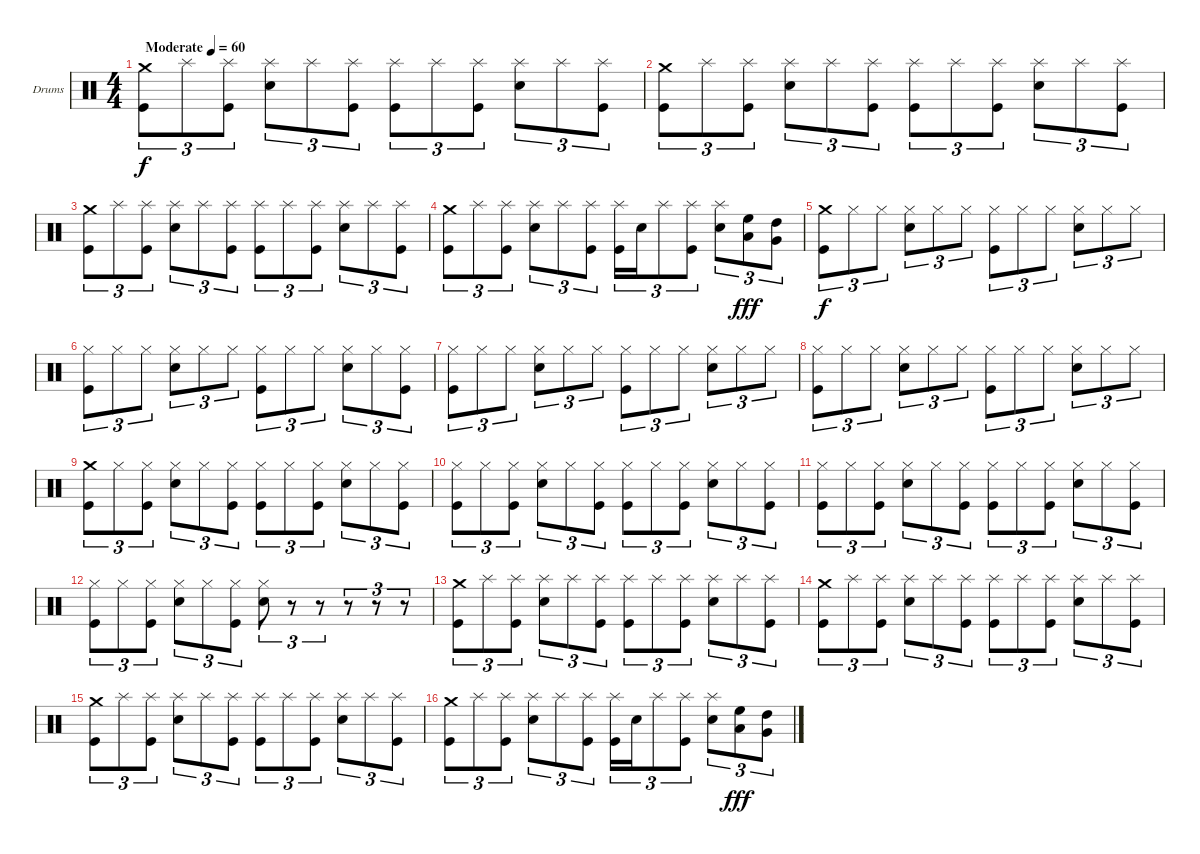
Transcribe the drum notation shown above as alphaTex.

\bracketExtendMode groupsimilarinstruments
\firstSystemTrackNameOrientation horizontal
\otherSystemsTrackNameOrientation horizontal
\track ("Drumkit" "Drums") {instrument percussion}
\staff {score}
\articulation defaults
\ts (4 4)
\beaming (8 2 2 2 2)
\tempo (60 "Moderate")
\clef neutral
\ks c
("Crash medium (hit)" "Kick (hit)").8{tu (3 2) dy f} "Splash (hit)".8{tu (3 2)} ("Splash (hit)" "Kick (hit)").8{tu (3 2)} ("Splash (hit)" "Snare (hit) 2").8{tu (3 2)} "Splash (hit)".8{tu (3 2)} ("Splash (hit)" "Kick (hit)").8{tu (3 2)} ("Splash (hit)" "Kick (hit)").8{tu (3 2)} "Splash (hit)".8{tu (3 2)} ("Splash (hit)" "Kick (hit)").8{tu (3 2)} ("Splash (hit)" "Snare (hit) 2").8{tu (3 2)} "Splash (hit)".8{tu (3 2)} ("Splash (hit)" "Kick (hit)").8{tu (3 2)} |
("Crash medium (hit)" "Kick (hit)").8{tu (3 2)} "Splash (hit)".8{tu (3 2)} ("Splash (hit)" "Kick (hit)").8{tu (3 2)} ("Splash (hit)" "Snare (hit) 2").8{tu (3 2)} "Splash (hit)".8{tu (3 2)} ("Splash (hit)" "Kick (hit)").8{tu (3 2)} ("Splash (hit)" "Kick (hit)").8{tu (3 2)} "Splash (hit)".8{tu (3 2)} ("Splash (hit)" "Kick (hit)").8{tu (3 2)} ("Splash (hit)" "Snare (hit) 2").8{tu (3 2)} "Splash (hit)".8{tu (3 2)} ("Splash (hit)" "Kick (hit)").8{tu (3 2)} |
("Crash medium (hit)" "Kick (hit)").8{tu (3 2)} "Splash (hit)".8{tu (3 2)} ("Splash (hit)" "Kick (hit)").8{tu (3 2)} ("Splash (hit)" "Snare (hit) 2").8{tu (3 2)} "Splash (hit)".8{tu (3 2)} ("Splash (hit)" "Kick (hit)").8{tu (3 2)} ("Splash (hit)" "Kick (hit)").8{tu (3 2)} "Splash (hit)".8{tu (3 2)} ("Splash (hit)" "Kick (hit)").8{tu (3 2)} ("Splash (hit)" "Snare (hit) 2").8{tu (3 2)} "Splash (hit)".8{tu (3 2)} ("Splash (hit)" "Kick (hit)").8{tu (3 2)} |
("Crash medium (hit)" "Kick (hit)").8{tu (3 2)} "Splash (hit)".8{tu (3 2)} ("Splash (hit)" "Kick (hit)").8{tu (3 2)} ("Splash (hit)" "Snare (hit) 2").8{tu (3 2)} "Splash (hit)".8{tu (3 2)} ("Splash (hit)" "Kick (hit)").8{tu (3 2)} ("Splash (hit)" "Kick (hit)").16{tu (3 2)} "Snare (hit) 2".16{tu (3 2)} "Splash (hit)".8{tu (3 2)} ("Splash (hit)" "Kick (hit)").8{tu (3 2)} ("Splash (hit)" "Snare (hit) 2").8{tu (3 2)} ("High Floor Tom (hit)" "Low Tom (hit)").8{tu (3 2) dy fff} ("High Tom (hit)" "Very Low Tom (hit)").8{tu (3 2)} |
("Crash medium (hit)" "Kick (hit)").8{tu (3 2) dy f} "Hi-Hat (closed)".8{tu (3 2)} "Hi-Hat (closed)".8{tu (3 2)} ("Hi-Hat (closed)" "Snare (hit) 2").8{tu (3 2)} "Hi-Hat (closed)".8{tu (3 2)} "Hi-Hat (closed)".8{tu (3 2)} ("Hi-Hat (closed)" "Kick (hit)").8{tu (3 2)} "Hi-Hat (closed)".8{tu (3 2)} "Hi-Hat (closed)".8{tu (3 2)} ("Hi-Hat (closed)" "Snare (hit) 2").8{tu (3 2)} "Hi-Hat (closed)".8{tu (3 2)} "Hi-Hat (closed)".8{tu (3 2)} |
("Hi-Hat (closed)" "Kick (hit)").8{tu (3 2)} "Hi-Hat (closed)".8{tu (3 2)} "Hi-Hat (closed)".8{tu (3 2)} ("Hi-Hat (closed)" "Snare (hit) 2").8{tu (3 2)} "Hi-Hat (closed)".8{tu (3 2)} "Hi-Hat (closed)".8{tu (3 2)} ("Hi-Hat (closed)" "Kick (hit)").8{tu (3 2)} "Hi-Hat (closed)".8{tu (3 2)} "Hi-Hat (closed)".8{tu (3 2)} ("Hi-Hat (closed)" "Snare (hit) 2").8{tu (3 2)} "Hi-Hat (closed)".8{tu (3 2)} ("Hi-Hat (closed)" "Kick (hit)").8{tu (3 2)} |
("Hi-Hat (closed)" "Kick (hit)").8{tu (3 2)} "Hi-Hat (closed)".8{tu (3 2)} "Hi-Hat (closed)".8{tu (3 2)} ("Hi-Hat (closed)" "Snare (hit) 2").8{tu (3 2)} "Hi-Hat (closed)".8{tu (3 2)} "Hi-Hat (closed)".8{tu (3 2)} ("Hi-Hat (closed)" "Kick (hit)").8{tu (3 2)} "Hi-Hat (closed)".8{tu (3 2)} "Hi-Hat (closed)".8{tu (3 2)} ("Hi-Hat (closed)" "Snare (hit) 2").8{tu (3 2)} "Hi-Hat (closed)".8{tu (3 2)} "Hi-Hat (closed)".8{tu (3 2)} |
("Hi-Hat (closed)" "Kick (hit)").8{tu (3 2)} "Hi-Hat (closed)".8{tu (3 2)} "Hi-Hat (closed)".8{tu (3 2)} ("Hi-Hat (closed)" "Snare (hit) 2").8{tu (3 2)} "Hi-Hat (closed)".8{tu (3 2)} "Hi-Hat (closed)".8{tu (3 2)} ("Hi-Hat (closed)" "Kick (hit)").8{tu (3 2)} "Hi-Hat (closed)".8{tu (3 2)} "Hi-Hat (closed)".8{tu (3 2)} ("Hi-Hat (closed)" "Snare (hit) 2").8{tu (3 2)} "Hi-Hat (closed)".8{tu (3 2)} "Hi-Hat (closed)".8{tu (3 2)} |
("Crash medium (hit)" "Kick (hit)").8{tu (3 2)} "Hi-Hat (closed)".8{tu (3 2)} ("Hi-Hat (closed)" "Kick (hit)").8{tu (3 2)} ("Hi-Hat (closed)" "Snare (hit) 2").8{tu (3 2)} "Hi-Hat (closed)".8{tu (3 2)} ("Hi-Hat (closed)" "Kick (hit)").8{tu (3 2)} ("Hi-Hat (closed)" "Kick (hit)").8{tu (3 2)} "Hi-Hat (closed)".8{tu (3 2)} ("Hi-Hat (closed)" "Kick (hit)").8{tu (3 2)} ("Hi-Hat (closed)" "Snare (hit) 2").8{tu (3 2)} "Hi-Hat (closed)".8{tu (3 2)} ("Hi-Hat (closed)" "Kick (hit)").8{tu (3 2)} |
("Hi-Hat (closed)" "Kick (hit)").8{tu (3 2)} "Hi-Hat (closed)".8{tu (3 2)} ("Hi-Hat (closed)" "Kick (hit)").8{tu (3 2)} ("Hi-Hat (closed)" "Snare (hit) 2").8{tu (3 2)} "Hi-Hat (closed)".8{tu (3 2)} ("Hi-Hat (closed)" "Kick (hit)").8{tu (3 2)} ("Hi-Hat (closed)" "Kick (hit)").8{tu (3 2)} "Hi-Hat (closed)".8{tu (3 2)} ("Hi-Hat (closed)" "Kick (hit)").8{tu (3 2)} ("Hi-Hat (closed)" "Snare (hit) 2").8{tu (3 2)} "Hi-Hat (closed)".8{tu (3 2)} ("Hi-Hat (closed)" "Kick (hit)").8{tu (3 2)} |
("Hi-Hat (closed)" "Kick (hit)").8{tu (3 2)} "Hi-Hat (closed)".8{tu (3 2)} ("Hi-Hat (closed)" "Kick (hit)").8{tu (3 2)} ("Hi-Hat (closed)" "Snare (hit) 2").8{tu (3 2)} "Hi-Hat (closed)".8{tu (3 2)} ("Hi-Hat (closed)" "Kick (hit)").8{tu (3 2)} ("Hi-Hat (closed)" "Kick (hit)").8{tu (3 2)} "Hi-Hat (closed)".8{tu (3 2)} ("Hi-Hat (closed)" "Kick (hit)").8{tu (3 2)} ("Hi-Hat (closed)" "Snare (hit) 2").8{tu (3 2)} "Hi-Hat (closed)".8{tu (3 2)} ("Hi-Hat (closed)" "Kick (hit)").8{tu (3 2)} |
("Hi-Hat (closed)" "Kick (hit)").8{tu (3 2)} "Hi-Hat (closed)".8{tu (3 2)} ("Hi-Hat (closed)" "Kick (hit)").8{tu (3 2)} ("Hi-Hat (closed)" "Snare (hit) 2").8{tu (3 2)} "Hi-Hat (closed)".8{tu (3 2)} ("Hi-Hat (closed)" "Kick (hit)").8{tu (3 2)} ("Hi-Hat (closed)" "Snare (hit) 2").8{tu (3 2)} r.8{tu (3 2)} r.8{tu (3 2)} r.8{tu (3 2)} r.8{tu (3 2)} r.8{tu (3 2)} |
("Crash medium (hit)" "Kick (hit)").8{tu (3 2)} "Splash (hit)".8{tu (3 2)} ("Splash (hit)" "Kick (hit)").8{tu (3 2)} ("Splash (hit)" "Snare (hit) 2").8{tu (3 2)} "Splash (hit)".8{tu (3 2)} ("Splash (hit)" "Kick (hit)").8{tu (3 2)} ("Splash (hit)" "Kick (hit)").8{tu (3 2)} "Splash (hit)".8{tu (3 2)} ("Splash (hit)" "Kick (hit)").8{tu (3 2)} ("Splash (hit)" "Snare (hit) 2").8{tu (3 2)} "Splash (hit)".8{tu (3 2)} ("Splash (hit)" "Kick (hit)").8{tu (3 2)} |
("Crash medium (hit)" "Kick (hit)").8{tu (3 2)} "Splash (hit)".8{tu (3 2)} ("Splash (hit)" "Kick (hit)").8{tu (3 2)} ("Splash (hit)" "Snare (hit) 2").8{tu (3 2)} "Splash (hit)".8{tu (3 2)} ("Splash (hit)" "Kick (hit)").8{tu (3 2)} ("Splash (hit)" "Kick (hit)").8{tu (3 2)} "Splash (hit)".8{tu (3 2)} ("Splash (hit)" "Kick (hit)").8{tu (3 2)} ("Splash (hit)" "Snare (hit) 2").8{tu (3 2)} "Splash (hit)".8{tu (3 2)} ("Splash (hit)" "Kick (hit)").8{tu (3 2)} |
("Crash medium (hit)" "Kick (hit)").8{tu (3 2)} "Splash (hit)".8{tu (3 2)} ("Splash (hit)" "Kick (hit)").8{tu (3 2)} ("Splash (hit)" "Snare (hit) 2").8{tu (3 2)} "Splash (hit)".8{tu (3 2)} ("Splash (hit)" "Kick (hit)").8{tu (3 2)} ("Splash (hit)" "Kick (hit)").8{tu (3 2)} "Splash (hit)".8{tu (3 2)} ("Splash (hit)" "Kick (hit)").8{tu (3 2)} ("Splash (hit)" "Snare (hit) 2").8{tu (3 2)} "Splash (hit)".8{tu (3 2)} ("Splash (hit)" "Kick (hit)").8{tu (3 2)} |
("Crash medium (hit)" "Kick (hit)").8{tu (3 2)} "Splash (hit)".8{tu (3 2)} ("Splash (hit)" "Kick (hit)").8{tu (3 2)} ("Splash (hit)" "Snare (hit) 2").8{tu (3 2)} "Splash (hit)".8{tu (3 2)} ("Splash (hit)" "Kick (hit)").8{tu (3 2)} ("Splash (hit)" "Kick (hit)").16{tu (3 2)} "Snare (hit) 2".16{tu (3 2)} "Splash (hit)".8{tu (3 2)} ("Splash (hit)" "Kick (hit)").8{tu (3 2)} ("Splash (hit)" "Snare (hit) 2").8{tu (3 2)} ("High Floor Tom (hit)" "Low Tom (hit)").8{tu (3 2) dy fff} ("High Tom (hit)" "Very Low Tom (hit)").8{tu (3 2)}
